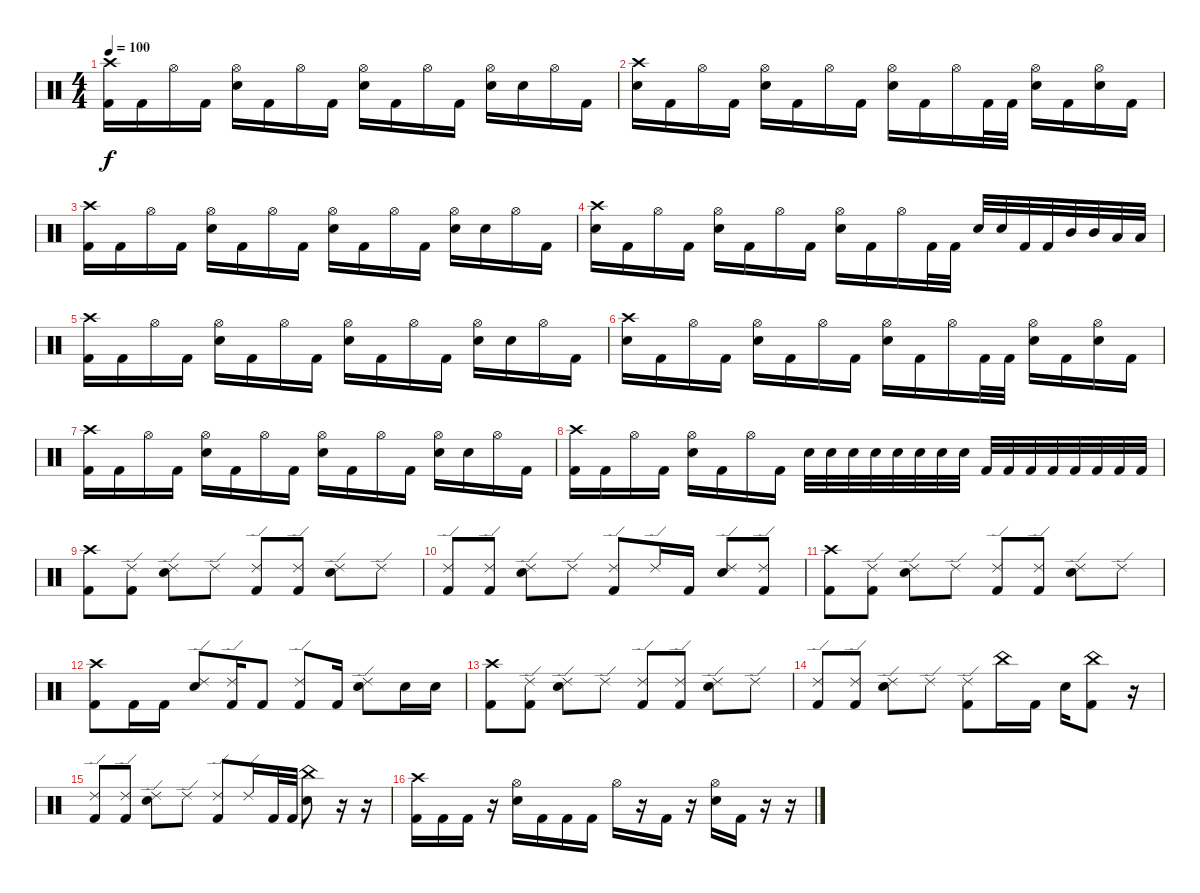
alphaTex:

\track "" {instrument percussion}
\staff {score}
\articulation defaults
\ts (4 4)
\tempo 100
\clef neutral
\ks c
("Crash high (hit)" "Kick (hit) 2").16{dy f} "Kick (hit) 2".16 "Hi-Hat (open)".16 "Kick (hit) 2".16 ("Hi-Hat (open)" "Electric Snare (hit)").16 "Kick (hit) 2".16 "Hi-Hat (open)".16 "Kick (hit) 2".16 ("Hi-Hat (open)" "Electric Snare (hit)").16 "Kick (hit) 2".16 "Hi-Hat (open)".16 "Kick (hit) 2".16 ("Hi-Hat (open)" "Electric Snare (hit)").16 "Electric Snare (hit)".16 "Hi-Hat (open)".16 "Kick (hit) 2".16 |
("Crash high (hit)" "Electric Snare (hit)").16 "Kick (hit) 2".16 "Hi-Hat (open)".16 "Kick (hit) 2".16 ("Hi-Hat (open)" "Electric Snare (hit)").16 "Kick (hit) 2".16 "Hi-Hat (open)".16 "Kick (hit) 2".16 ("Hi-Hat (open)" "Electric Snare (hit)").16 "Kick (hit) 2".16 "Hi-Hat (open)".16 "Kick (hit) 2".32 "Kick (hit) 2".32 ("Hi-Hat (open)" "Electric Snare (hit)").16 "Kick (hit) 2".16 ("Hi-Hat (open)" "Electric Snare (hit)").16 "Kick (hit) 2".16 |
("Crash high (hit)" "Kick (hit) 2").16 "Kick (hit) 2".16 "Hi-Hat (open)".16 "Kick (hit) 2".16 ("Hi-Hat (open)" "Electric Snare (hit)").16 "Kick (hit) 2".16 "Hi-Hat (open)".16 "Kick (hit) 2".16 ("Hi-Hat (open)" "Electric Snare (hit)").16 "Kick (hit) 2".16 "Hi-Hat (open)".16 "Kick (hit) 2".16 ("Hi-Hat (open)" "Electric Snare (hit)").16 "Electric Snare (hit)".16 "Hi-Hat (open)".16 "Kick (hit) 2".16 |
("Crash high (hit)" "Electric Snare (hit)").16 "Kick (hit) 2".16 "Hi-Hat (open)".16 "Kick (hit) 2".16 ("Hi-Hat (open)" "Electric Snare (hit)").16 "Kick (hit) 2".16 "Hi-Hat (open)".16 "Kick (hit) 2".16 ("Hi-Hat (open)" "Electric Snare (hit)").16 "Kick (hit) 2".16 "Hi-Hat (open)".16 "Kick (hit) 2".32 "Kick (hit) 2".32 "Electric Snare (hit)".32 "Electric Snare (hit)".32 "Kick (hit) 2".32 "Kick (hit) 2".32 "Mid Tom (hit)".32{balance 11} "Mid Tom (hit)".32{balance 8} "Low Tom (hit)".32{balance 5} "Low Tom (hit)".32{balance 4} |
("Crash high (hit)" "Kick (hit) 2").16{balance 8} "Kick (hit) 2".16 "Hi-Hat (open)".16 "Kick (hit) 2".16 ("Hi-Hat (open)" "Electric Snare (hit)").16 "Kick (hit) 2".16 "Hi-Hat (open)".16 "Kick (hit) 2".16 ("Hi-Hat (open)" "Electric Snare (hit)").16 "Kick (hit) 2".16 "Hi-Hat (open)".16 "Kick (hit) 2".16 ("Hi-Hat (open)" "Electric Snare (hit)").16 "Electric Snare (hit)".16 "Hi-Hat (open)".16 "Kick (hit) 2".16 |
("Crash high (hit)" "Electric Snare (hit)").16 "Kick (hit) 2".16 "Hi-Hat (open)".16 "Kick (hit) 2".16 ("Hi-Hat (open)" "Electric Snare (hit)").16 "Kick (hit) 2".16 "Hi-Hat (open)".16 "Kick (hit) 2".16 ("Hi-Hat (open)" "Electric Snare (hit)").16 "Kick (hit) 2".16 "Hi-Hat (open)".16 "Kick (hit) 2".32 "Kick (hit) 2".32 ("Hi-Hat (open)" "Electric Snare (hit)").16 "Kick (hit) 2".16 ("Hi-Hat (open)" "Electric Snare (hit)").16 "Kick (hit) 2".16 |
("Crash high (hit)" "Kick (hit) 2").16 "Kick (hit) 2".16 "Hi-Hat (open)".16 "Kick (hit) 2".16 ("Hi-Hat (open)" "Electric Snare (hit)").16 "Kick (hit) 2".16 "Hi-Hat (open)".16 "Kick (hit) 2".16 ("Hi-Hat (open)" "Electric Snare (hit)").16 "Kick (hit) 2".16 "Hi-Hat (open)".16 "Kick (hit) 2".16 ("Hi-Hat (open)" "Electric Snare (hit)").16 "Electric Snare (hit)".16 "Hi-Hat (open)".16 "Kick (hit) 2".16 |
("Crash high (hit)" "Kick (hit) 2").16 "Kick (hit) 2".16 "Hi-Hat (open)".16 "Kick (hit) 2".16 ("Hi-Hat (open)" "Electric Snare (hit)").16 "Kick (hit) 2".16 "Hi-Hat (open)".16 "Kick (hit) 2".16 "Electric Snare (hit)".32 "Electric Snare (hit)".32 "Electric Snare (hit)".32 "Electric Snare (hit)".32 "Electric Snare (hit)".32 "Electric Snare (hit)".32 "Electric Snare (hit)".32 "Electric Snare (hit)".32 "Kick (hit) 2".32 "Kick (hit) 2".32 "Kick (hit) 2".32 "Kick (hit) 2".32 "Kick (hit) 2".32 "Kick (hit) 2".32 "Kick (hit) 2".32 "Kick (hit) 2".32 |
("Crash high (hit)" "Kick (hit) 2").8 ("Ride (edge) 2" "Kick (hit) 2").8 ("Ride (edge) 2" "Electric Snare (hit)").8 "Ride (edge) 2".8 ("Ride (edge) 2" "Kick (hit) 2").8 ("Ride (edge) 2" "Kick (hit) 2").8 ("Ride (edge) 2" "Electric Snare (hit)").8 "Ride (edge) 2".8 |
("Ride (edge) 2" "Kick (hit) 2").8 ("Ride (edge) 2" "Kick (hit) 2").8 ("Ride (edge) 2" "Electric Snare (hit)").8 "Ride (edge) 2".8 ("Ride (edge) 2" "Kick (hit) 2").8 "Ride (edge) 2".16 "Kick (hit) 2".16 ("Ride (edge) 2" "Electric Snare (hit)").8 ("Ride (edge) 2" "Kick (hit) 2").8 |
("Crash high (hit)" "Kick (hit) 2").8 ("Ride (edge) 2" "Kick (hit) 2").8 ("Ride (edge) 2" "Electric Snare (hit)").8 "Ride (edge) 2".8 ("Ride (edge) 2" "Kick (hit) 2").8 ("Ride (edge) 2" "Kick (hit) 2").8 ("Ride (edge) 2" "Electric Snare (hit)").8 "Ride (edge) 2".8 |
("Crash high (hit)" "Kick (hit) 2").8 "Kick (hit) 2".16 "Kick (hit) 2".16 ("Ride (edge) 2" "Electric Snare (hit)").8 ("Ride (edge) 2" "Kick (hit) 2").16 "Kick (hit) 2".8 ("Ride (edge) 2" "Kick (hit) 2").8 "Kick (hit) 2".16 ("Ride (edge) 2" "Electric Snare (hit)").8 "Electric Snare (hit)".16 "Electric Snare (hit)".16 |
("Crash high (hit)" "Kick (hit) 2").8 ("Ride (edge) 2" "Kick (hit) 2").8 ("Ride (edge) 2" "Electric Snare (hit)").8 "Ride (edge) 2".8 ("Ride (edge) 2" "Kick (hit) 2").8 ("Ride (edge) 2" "Kick (hit) 2").8 ("Ride (edge) 2" "Electric Snare (hit)").8 "Ride (edge) 2".8 |
("Ride (edge) 2" "Kick (hit) 2").8 ("Ride (edge) 2" "Kick (hit) 2").8 ("Ride (edge) 2" "Electric Snare (hit)").8 "Ride (edge) 2".8 ("Ride (edge) 2" "Kick (hit) 2").8 "China (hit)".16 "Kick (hit) 2".16 "Electric Snare (hit)".16 ("China (hit)" "Kick (hit) 2").8 r.16 |
("Ride (edge) 2" "Kick (hit) 2").8 ("Ride (edge) 2" "Kick (hit) 2").8 ("Ride (edge) 2" "Electric Snare (hit)").8 "Ride (edge) 2".8 ("Ride (edge) 2" "Kick (hit) 2").8 "Ride (edge) 2".16 "Kick (hit) 2".32 "Kick (hit) 2".32 ("China (hit)" "Electric Snare (hit)").8 r.16 r.16 |
("Crash high (hit)" "Kick (hit) 2").16 "Kick (hit) 2".16 "Kick (hit) 2".16 r.16 ("Hi-Hat (open)" "Electric Snare (hit)").16 "Kick (hit) 2".16 "Kick (hit) 2".16 "Kick (hit) 2".16 "Hi-Hat (open)".16 r.16 "Kick (hit) 2".16 r.16 ("Hi-Hat (open)" "Electric Snare (hit)").16 "Kick (hit) 2".16 r.16 r.16
